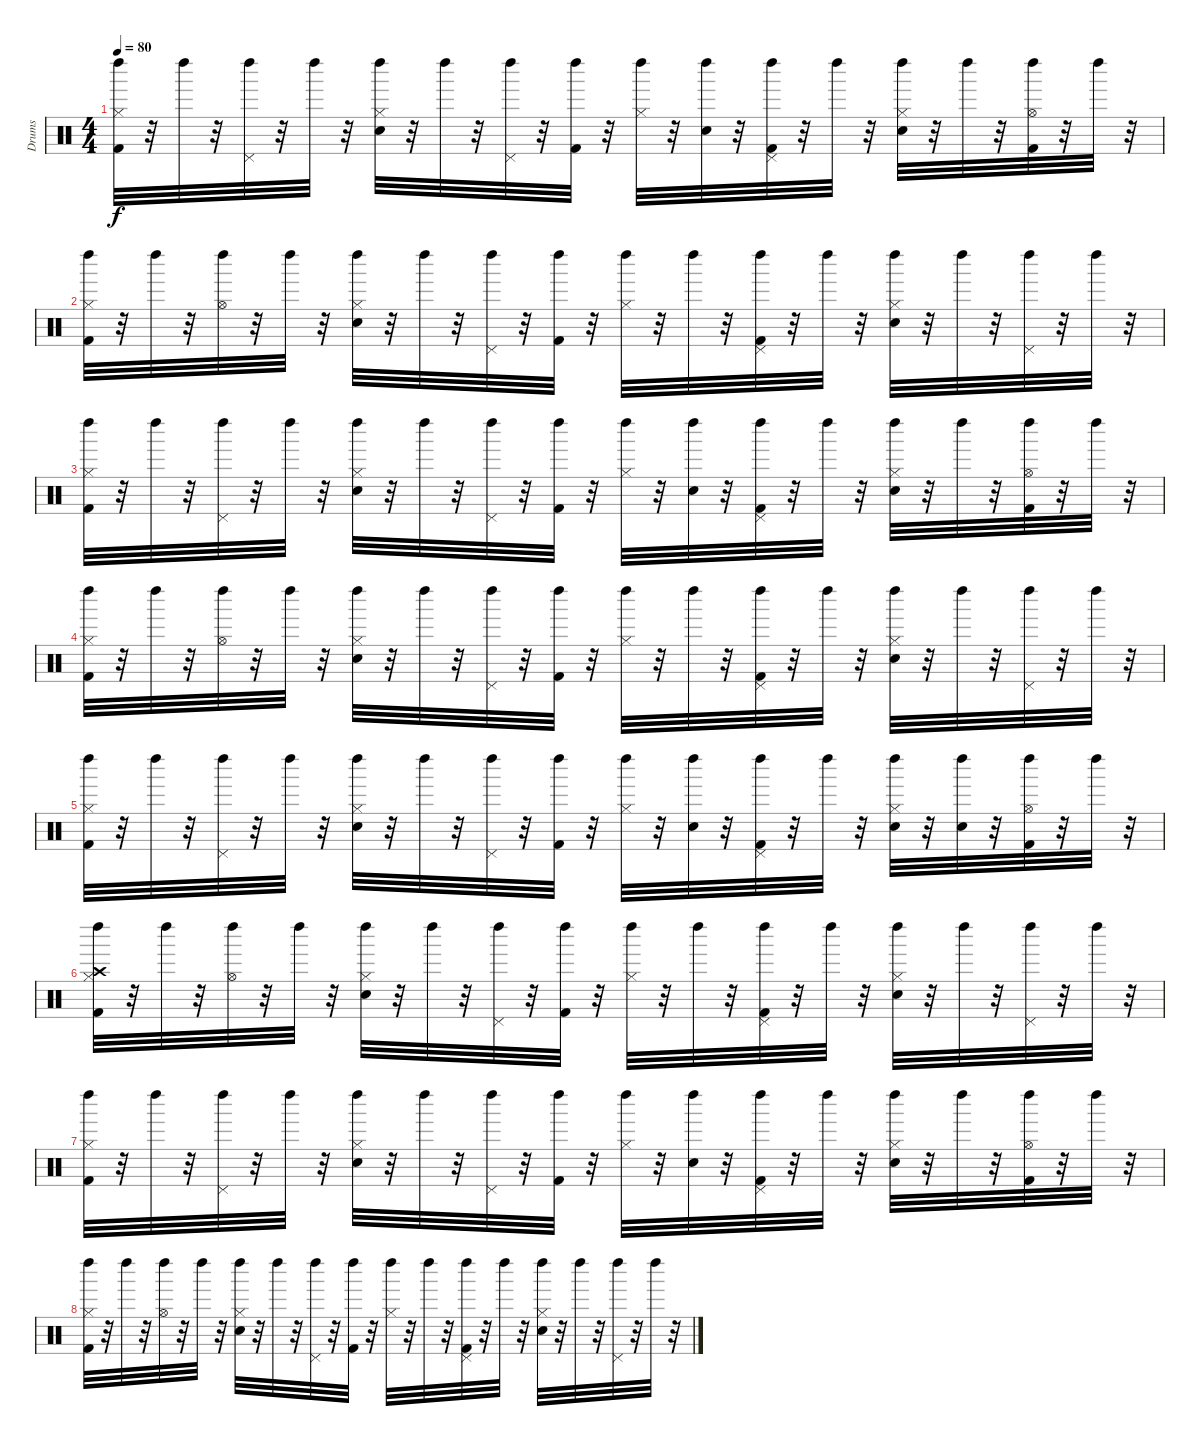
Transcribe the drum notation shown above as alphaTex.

\track ("Drums" "Drums") {instrument percussion}
\staff {score}
\articulation defaults
\ts (4 4)
\tempo 80
\clef neutral
\ks c
("Left Maraca (hit)" "Kick (hit) 2" "Hi-Hat (closed)").32{dy f} r.32 "Left Maraca (hit)".32 r.32 ("Left Maraca (hit)" "Pedal Hi-Hat (hit)").32 r.32 "Left Maraca (hit)".32 r.32 ("Left Maraca (hit)" "Snare (hit) 2" "Hi-Hat (closed)").32 r.32 "Left Maraca (hit)".32 r.32 ("Left Maraca (hit)" "Pedal Hi-Hat (hit)").32 r.32 ("Left Maraca (hit)" "Kick (hit) 2").32 r.32 ("Left Maraca (hit)" "Hi-Hat (closed)").32 r.32 ("Left Maraca (hit)" "Snare (hit) 2").32 r.32 ("Left Maraca (hit)" "Kick (hit) 2" "Pedal Hi-Hat (hit)").32 r.32 "Left Maraca (hit)".32 r.32 ("Left Maraca (hit)" "Snare (hit) 2" "Hi-Hat (closed)").32 r.32 "Left Maraca (hit)".32 r.32 ("Left Maraca (hit)" "Hi-Hat (open)" "Kick (hit) 2").32 r.32 "Left Maraca (hit)".32 r.32 |
("Left Maraca (hit)" "Kick (hit) 2" "Hi-Hat (closed)").32 r.32 "Left Maraca (hit)".32 r.32 ("Left Maraca (hit)" "Hi-Hat (open)").32 r.32 "Left Maraca (hit)".32 r.32 ("Left Maraca (hit)" "Snare (hit) 2" "Hi-Hat (closed)").32 r.32 "Left Maraca (hit)".32 r.32 ("Left Maraca (hit)" "Pedal Hi-Hat (hit)").32 r.32 ("Left Maraca (hit)" "Kick (hit) 2").32 r.32 ("Left Maraca (hit)" "Hi-Hat (closed)").32 r.32 "Left Maraca (hit)".32 r.32 ("Left Maraca (hit)" "Kick (hit) 2" "Pedal Hi-Hat (hit)").32 r.32 "Left Maraca (hit)".32 r.32 ("Left Maraca (hit)" "Snare (hit) 2" "Hi-Hat (closed)").32 r.32 "Left Maraca (hit)".32 r.32 ("Left Maraca (hit)" "Pedal Hi-Hat (hit)").32 r.32 "Left Maraca (hit)".32 r.32 |
("Left Maraca (hit)" "Kick (hit) 2" "Hi-Hat (closed)").32 r.32 "Left Maraca (hit)".32 r.32 ("Left Maraca (hit)" "Pedal Hi-Hat (hit)").32 r.32 "Left Maraca (hit)".32 r.32 ("Left Maraca (hit)" "Snare (hit) 2" "Hi-Hat (closed)").32 r.32 "Left Maraca (hit)".32 r.32 ("Left Maraca (hit)" "Pedal Hi-Hat (hit)").32 r.32 ("Left Maraca (hit)" "Kick (hit) 2").32 r.32 ("Left Maraca (hit)" "Hi-Hat (closed)").32 r.32 ("Left Maraca (hit)" "Snare (hit) 2").32 r.32 ("Left Maraca (hit)" "Kick (hit) 2" "Pedal Hi-Hat (hit)").32 r.32 "Left Maraca (hit)".32 r.32 ("Left Maraca (hit)" "Snare (hit) 2" "Hi-Hat (closed)").32 r.32 "Left Maraca (hit)".32 r.32 ("Left Maraca (hit)" "Hi-Hat (open)" "Kick (hit) 2").32 r.32 "Left Maraca (hit)".32 r.32 |
("Left Maraca (hit)" "Kick (hit) 2" "Hi-Hat (closed)").32 r.32 "Left Maraca (hit)".32 r.32 ("Left Maraca (hit)" "Hi-Hat (open)").32 r.32 "Left Maraca (hit)".32 r.32 ("Left Maraca (hit)" "Snare (hit) 2" "Hi-Hat (closed)").32 r.32 "Left Maraca (hit)".32 r.32 ("Left Maraca (hit)" "Pedal Hi-Hat (hit)").32 r.32 ("Left Maraca (hit)" "Kick (hit) 2").32 r.32 ("Left Maraca (hit)" "Hi-Hat (closed)").32 r.32 "Left Maraca (hit)".32 r.32 ("Left Maraca (hit)" "Kick (hit) 2" "Pedal Hi-Hat (hit)").32 r.32 "Left Maraca (hit)".32 r.32 ("Left Maraca (hit)" "Snare (hit) 2" "Hi-Hat (closed)").32 r.32 "Left Maraca (hit)".32 r.32 ("Left Maraca (hit)" "Pedal Hi-Hat (hit)").32 r.32 "Left Maraca (hit)".32 r.32 |
("Left Maraca (hit)" "Kick (hit) 2" "Hi-Hat (closed)").32 r.32 "Left Maraca (hit)".32 r.32 ("Left Maraca (hit)" "Pedal Hi-Hat (hit)").32 r.32 "Left Maraca (hit)".32 r.32 ("Left Maraca (hit)" "Snare (hit) 2" "Hi-Hat (closed)").32 r.32 "Left Maraca (hit)".32 r.32 ("Left Maraca (hit)" "Pedal Hi-Hat (hit)").32 r.32 ("Left Maraca (hit)" "Kick (hit) 2").32 r.32 ("Left Maraca (hit)" "Hi-Hat (closed)").32 r.32 ("Left Maraca (hit)" "Snare (hit) 2").32 r.32 ("Left Maraca (hit)" "Kick (hit) 2" "Pedal Hi-Hat (hit)").32 r.32 "Left Maraca (hit)".32 r.32 ("Left Maraca (hit)" "Snare (hit) 2" "Hi-Hat (closed)").32 r.32 ("Left Maraca (hit)" "Snare (hit) 2").32 r.32 ("Left Maraca (hit)" "Hi-Hat (open)" "Kick (hit) 2").32 r.32 "Left Maraca (hit)".32 r.32 |
("Left Maraca (hit)" "Crash high (hit)" "Kick (hit) 2" "Hi-Hat (closed)").32 r.32 "Left Maraca (hit)".32 r.32 ("Left Maraca (hit)" "Hi-Hat (open)").32 r.32 "Left Maraca (hit)".32 r.32 ("Left Maraca (hit)" "Snare (hit) 2" "Hi-Hat (closed)").32 r.32 "Left Maraca (hit)".32 r.32 ("Left Maraca (hit)" "Pedal Hi-Hat (hit)").32 r.32 ("Left Maraca (hit)" "Kick (hit) 2").32 r.32 ("Left Maraca (hit)" "Hi-Hat (closed)").32 r.32 "Left Maraca (hit)".32 r.32 ("Left Maraca (hit)" "Kick (hit) 2" "Pedal Hi-Hat (hit)").32 r.32 "Left Maraca (hit)".32 r.32 ("Left Maraca (hit)" "Snare (hit) 2" "Hi-Hat (closed)").32 r.32 "Left Maraca (hit)".32 r.32 ("Left Maraca (hit)" "Pedal Hi-Hat (hit)").32 r.32 "Left Maraca (hit)".32 r.32 |
("Left Maraca (hit)" "Kick (hit) 2" "Hi-Hat (closed)").32 r.32 "Left Maraca (hit)".32 r.32 ("Left Maraca (hit)" "Pedal Hi-Hat (hit)").32 r.32 "Left Maraca (hit)".32 r.32 ("Left Maraca (hit)" "Snare (hit) 2" "Hi-Hat (closed)").32 r.32 "Left Maraca (hit)".32 r.32 ("Left Maraca (hit)" "Pedal Hi-Hat (hit)").32 r.32 ("Left Maraca (hit)" "Kick (hit) 2").32 r.32 ("Left Maraca (hit)" "Hi-Hat (closed)").32 r.32 ("Left Maraca (hit)" "Snare (hit) 2").32 r.32 ("Left Maraca (hit)" "Kick (hit) 2" "Pedal Hi-Hat (hit)").32 r.32 "Left Maraca (hit)".32 r.32 ("Left Maraca (hit)" "Snare (hit) 2" "Hi-Hat (closed)").32 r.32 "Left Maraca (hit)".32 r.32 ("Left Maraca (hit)" "Hi-Hat (open)" "Kick (hit) 2").32 r.32 "Left Maraca (hit)".32 r.32 |
("Left Maraca (hit)" "Kick (hit) 2" "Hi-Hat (closed)").32 r.32 "Left Maraca (hit)".32 r.32 ("Left Maraca (hit)" "Hi-Hat (open)").32 r.32 "Left Maraca (hit)".32 r.32 ("Left Maraca (hit)" "Snare (hit) 2" "Hi-Hat (closed)").32 r.32 "Left Maraca (hit)".32 r.32 ("Left Maraca (hit)" "Pedal Hi-Hat (hit)").32 r.32 ("Left Maraca (hit)" "Kick (hit) 2").32 r.32 ("Left Maraca (hit)" "Hi-Hat (closed)").32 r.32 "Left Maraca (hit)".32 r.32 ("Left Maraca (hit)" "Kick (hit) 2" "Pedal Hi-Hat (hit)").32 r.32 "Left Maraca (hit)".32 r.32 ("Left Maraca (hit)" "Snare (hit) 2" "Hi-Hat (closed)").32 r.32 "Left Maraca (hit)".32 r.32 ("Left Maraca (hit)" "Pedal Hi-Hat (hit)").32 r.32 "Left Maraca (hit)".32 r.32
